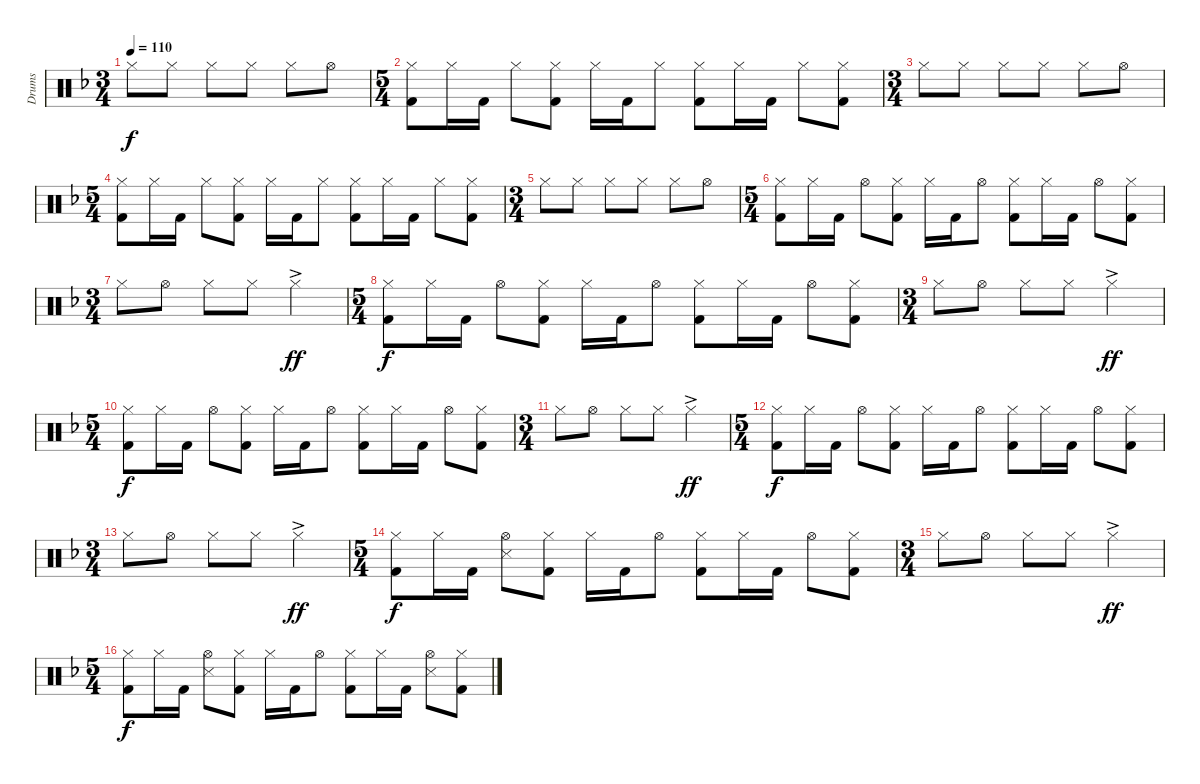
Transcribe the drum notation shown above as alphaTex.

\track ("Drums" "Drums") {instrument percussion}
\staff {score}
\articulation defaults
\ts (3 4)
\tempo 110
\clef neutral
\ks dminor "Hi-Hat (closed)".8{dy f} "Hi-Hat (closed)".8 "Hi-Hat (closed)".8 "Hi-Hat (closed)".8 "Hi-Hat (closed)".8 "Hi-Hat (open)".8
|
\ts (5 4)
("Hi-Hat (closed)" "Kick (hit) 2").8 "Hi-Hat (closed)".16 "Kick (hit) 2".16 "Hi-Hat (closed)".8 ("Hi-Hat (closed)" "Kick (hit) 2").8 "Hi-Hat (closed)".16 "Kick (hit) 2".16 "Hi-Hat (closed)".8 ("Hi-Hat (closed)" "Kick (hit) 2").8 "Hi-Hat (closed)".16 "Kick (hit) 2".16 "Hi-Hat (closed)".8 ("Hi-Hat (closed)" "Kick (hit) 2").8 |
\ts (3 4)
"Hi-Hat (closed)".8 "Hi-Hat (closed)".8 "Hi-Hat (closed)".8 "Hi-Hat (closed)".8 "Hi-Hat (closed)".8 "Hi-Hat (open)".8 |
\ts (5 4)
("Hi-Hat (closed)" "Kick (hit) 2").8 "Hi-Hat (closed)".16 "Kick (hit) 2".16 "Hi-Hat (closed)".8 ("Hi-Hat (closed)" "Kick (hit) 2").8 "Hi-Hat (closed)".16 "Kick (hit) 2".16 "Hi-Hat (closed)".8 ("Hi-Hat (closed)" "Kick (hit) 2").8 "Hi-Hat (closed)".16 "Kick (hit) 2".16 "Hi-Hat (closed)".8 ("Hi-Hat (closed)" "Kick (hit) 2").8 |
\ts (3 4)
"Hi-Hat (closed)".8 "Hi-Hat (closed)".8 "Hi-Hat (closed)".8 "Hi-Hat (closed)".8 "Hi-Hat (closed)".8 "Hi-Hat (open)".8 |
\ts (5 4)
("Hi-Hat (closed)" "Kick (hit) 2").8 "Hi-Hat (closed)".16 "Kick (hit) 2".16 "Hi-Hat (open)".8 ("Hi-Hat (closed)" "Kick (hit) 2").8 "Hi-Hat (closed)".16 "Kick (hit) 2".16 "Hi-Hat (open)".8 ("Hi-Hat (closed)" "Kick (hit) 2").8 "Hi-Hat (closed)".16 "Kick (hit) 2".16 "Hi-Hat (open)".8 ("Hi-Hat (closed)" "Kick (hit) 2").8 |
\ts (3 4)
"Hi-Hat (closed)".8 "Hi-Hat (open)".8 "Hi-Hat (closed)".8 "Hi-Hat (closed)".8 "Hi-Hat (closed)"{ac}.4{dy ff} |
\ts (5 4)
("Hi-Hat (closed)" "Kick (hit) 2").8{dy f} "Hi-Hat (closed)".16 "Kick (hit) 2".16 "Hi-Hat (open)".8 ("Hi-Hat (closed)" "Kick (hit) 2").8 "Hi-Hat (closed)".16 "Kick (hit) 2".16 "Hi-Hat (open)".8 ("Hi-Hat (closed)" "Kick (hit) 2").8 "Hi-Hat (closed)".16 "Kick (hit) 2".16 "Hi-Hat (open)".8 ("Hi-Hat (closed)" "Kick (hit) 2").8 |
\ts (3 4)
"Hi-Hat (closed)".8 "Hi-Hat (open)".8 "Hi-Hat (closed)".8 "Hi-Hat (closed)".8 "Hi-Hat (closed)"{ac}.4{dy ff} |
\ts (5 4)
("Hi-Hat (closed)" "Kick (hit) 2").8{dy f} "Hi-Hat (closed)".16 "Kick (hit) 2".16 "Hi-Hat (open)".8 ("Hi-Hat (closed)" "Kick (hit) 2").8 "Hi-Hat (closed)".16 "Kick (hit) 2".16 "Hi-Hat (open)".8 ("Hi-Hat (closed)" "Kick (hit) 2").8 "Hi-Hat (closed)".16 "Kick (hit) 2".16 "Hi-Hat (open)".8 ("Hi-Hat (closed)" "Kick (hit) 2").8 |
\ts (3 4)
"Hi-Hat (closed)".8 "Hi-Hat (open)".8 "Hi-Hat (closed)".8 "Hi-Hat (closed)".8 "Hi-Hat (closed)"{ac}.4{dy ff} |
\ts (5 4)
("Hi-Hat (closed)" "Kick (hit) 2").8{dy f} "Hi-Hat (closed)".16 "Kick (hit) 2".16 "Hi-Hat (open)".8 ("Hi-Hat (closed)" "Kick (hit) 2").8 "Hi-Hat (closed)".16 "Kick (hit) 2".16 "Hi-Hat (open)".8 ("Hi-Hat (closed)" "Kick (hit) 2").8 "Hi-Hat (closed)".16 "Kick (hit) 2".16 "Hi-Hat (open)".8 ("Hi-Hat (closed)" "Kick (hit) 2").8 |
\ts (3 4)
"Hi-Hat (closed)".8 "Hi-Hat (open)".8 "Hi-Hat (closed)".8 "Hi-Hat (closed)".8 "Hi-Hat (closed)"{ac}.4{dy ff} |
\ts (5 4)
("Hi-Hat (closed)" "Kick (hit) 2").8{dy f} "Hi-Hat (closed)".16 "Kick (hit) 2".16 ("Hi-Hat (open)" "Snare (side stick) 3").8 ("Hi-Hat (closed)" "Kick (hit) 2").8 "Hi-Hat (closed)".16 "Kick (hit) 2".16 "Hi-Hat (open)".8 ("Hi-Hat (closed)" "Kick (hit) 2").8 "Hi-Hat (closed)".16 "Kick (hit) 2".16 "Hi-Hat (open)".8 ("Hi-Hat (closed)" "Kick (hit) 2").8 |
\ts (3 4)
"Hi-Hat (closed)".8 "Hi-Hat (open)".8 "Hi-Hat (closed)".8 "Hi-Hat (closed)".8 "Hi-Hat (closed)"{ac}.4{dy ff} |
\ts (5 4)
("Hi-Hat (closed)" "Kick (hit) 2").8{dy f} "Hi-Hat (closed)".16 "Kick (hit) 2".16 ("Hi-Hat (open)" "Snare (side stick) 3").8 ("Hi-Hat (closed)" "Kick (hit) 2").8 "Hi-Hat (closed)".16 "Kick (hit) 2".16 "Hi-Hat (open)".8 ("Hi-Hat (closed)" "Kick (hit) 2").8 "Hi-Hat (closed)".16 "Kick (hit) 2".16 ("Hi-Hat (open)" "Snare (side stick) 3").8 ("Hi-Hat (closed)" "Kick (hit) 2").8
